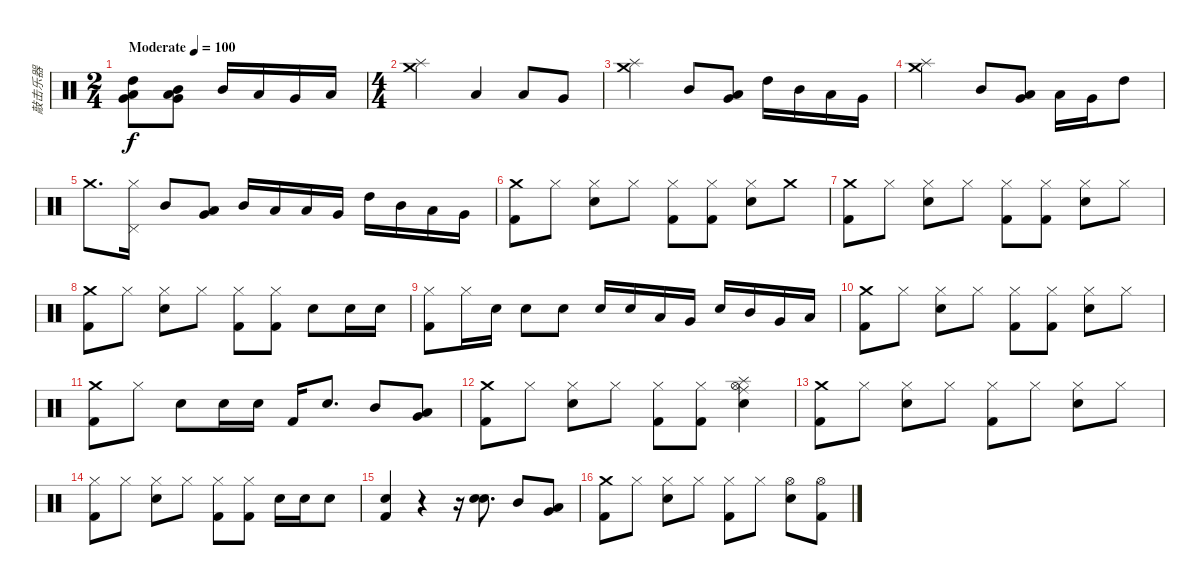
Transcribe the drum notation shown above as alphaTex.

\track ("敲击乐器" "敲击乐器") {instrument percussion}
\staff {score}
\articulation defaults
\ts (2 4)
\tempo (100 "Moderate")
\clef neutral
\ks c
("High Tom (hit)" "Low Tom (hit)" "Very Low Tom (hit)").8{dy f} ("Very Low Tom (hit)" "Mid Tom (hit)" "Low Tom (hit)").8 "Mid Tom (hit)".16 "Low Tom (hit)".16 "Very Low Tom (hit)".16 "Low Tom (hit)".16 |
\ts (4 4)
("Crash medium (hit)" "Splash (hit)").2 "Low Tom (hit)".4 "Low Tom (hit)".8 "Very Low Tom (hit)".8 |
("Crash medium (hit)" "Splash (hit)").2 "Mid Tom (hit)".8 ("Very Low Tom (hit)" "Low Tom (hit)").8 "High Tom (hit)".16 "Mid Tom (hit)".16 "Low Tom (hit)".16 "Very Low Tom (hit)".16 |
("Crash medium (hit)" "Splash (hit)").2 "Mid Tom (hit)".8 ("Very Low Tom (hit)" "Low Tom (hit)").8 "Low Tom (hit)".16 "Very Low Tom (hit)".16 "High Tom (hit)".8 |
"Crash medium (hit)".8{d} ("Pedal Hi-Hat (hit)" "Hi-Hat (closed)").16 "Mid Tom (hit)".8 ("Very Low Tom (hit)" "Low Tom (hit)").8 "Mid Tom (hit)".16 "Low Tom (hit)".16 "Low Tom (hit)".16 "Very Low Tom (hit)".16 "High Tom (hit)".16 "Mid Tom (hit)".16 "Low Tom (hit)".16 "Very Low Tom (hit)".16 |
("Crash medium (hit)" "Kick (hit) 2").8 "Hi-Hat (closed)".8 ("Hi-Hat (closed)" "Electric Snare (hit)").8 "Hi-Hat (closed)".8 ("Hi-Hat (closed)" "Kick (hit) 2").8 ("Hi-Hat (closed)" "Kick (hit) 2").8 ("Hi-Hat (closed)" "Electric Snare (hit)").8 "Crash medium (hit)".8 |
("Crash medium (hit)" "Kick (hit) 2").8 "Hi-Hat (closed)".8 ("Hi-Hat (closed)" "Electric Snare (hit)").8 "Hi-Hat (closed)".8 ("Hi-Hat (closed)" "Kick (hit) 2").8 ("Hi-Hat (closed)" "Kick (hit) 2").8 ("Hi-Hat (closed)" "Electric Snare (hit)").8 "Hi-Hat (closed)".8 |
("Crash medium (hit)" "Kick (hit) 2").8 "Hi-Hat (closed)".8 ("Hi-Hat (closed)" "Electric Snare (hit)").8 "Hi-Hat (closed)".8 ("Hi-Hat (closed)" "Kick (hit) 2").8 ("Hi-Hat (closed)" "Kick (hit) 2").8 "Electric Snare (hit)".8 "Electric Snare (hit)".16 "Electric Snare (hit)".16 |
("Hi-Hat (closed)" "Kick (hit) 2").8 "Hi-Hat (closed)".16 "Electric Snare (hit)".16 "Electric Snare (hit)".8 "Electric Snare (hit)".8 "Electric Snare (hit)".16 "Electric Snare (hit)".16 "Low Tom (hit)".16 "Very Low Tom (hit)".16 "Electric Snare (hit)".16 "Mid Tom (hit)".16 "Very Low Tom (hit)".16 "Low Tom (hit)".16 |
("Crash medium (hit)" "Kick (hit) 2").8 "Hi-Hat (closed)".8 ("Hi-Hat (closed)" "Electric Snare (hit)").8 "Hi-Hat (closed)".8 ("Hi-Hat (closed)" "Kick (hit) 2").8 ("Hi-Hat (closed)" "Kick (hit) 2").8 ("Hi-Hat (closed)" "Electric Snare (hit)").8 "Hi-Hat (closed)".8 |
("Crash medium (hit)" "Kick (hit) 2").8 "Hi-Hat (closed)".8 "Electric Snare (hit)".8 "Electric Snare (hit)".16 "Electric Snare (hit)".16 "Kick (hit) 2".16 "Electric Snare (hit)".8{d} "Mid Tom (hit)".8 ("Very Low Tom (hit)" "Low Tom (hit)").8 |
("Crash medium (hit)" "Kick (hit) 2").8 "Hi-Hat (closed)".8 ("Hi-Hat (closed)" "Electric Snare (hit)").8 "Hi-Hat (closed)".8 ("Hi-Hat (closed)" "Kick (hit) 2").8 ("Hi-Hat (closed)" "Kick (hit) 2").8 ("Hi-Hat (open)" "Electric Snare (hit)" "Splash (hit)" "Ride (middle)").4 |
("Crash medium (hit)" "Kick (hit) 2").8 "Hi-Hat (closed)".8 ("Hi-Hat (closed)" "Electric Snare (hit)").8 "Hi-Hat (closed)".8 ("Hi-Hat (closed)" "Kick (hit) 2").8 "Hi-Hat (closed)".8 ("Hi-Hat (closed)" "Electric Snare (hit)").8 "Hi-Hat (closed)".8 |
("Hi-Hat (closed)" "Kick (hit) 2").8 "Hi-Hat (closed)".8 ("Hi-Hat (closed)" "Electric Snare (hit)").8 "Hi-Hat (closed)".8 ("Hi-Hat (closed)" "Kick (hit) 2").8 ("Hi-Hat (closed)" "Kick (hit) 2").8 "Electric Snare (hit)".16 "Electric Snare (hit)".16 "Electric Snare (hit)".8 |
("Electric Snare (hit)" "Kick (hit) 2").4 r.4 r.16 ("Electric Snare (hit)" "Snare (hit) 2").8{d} "Mid Tom (hit)".8 ("Very Low Tom (hit)" "Low Tom (hit)").8 |
("Crash medium (hit)" "Kick (hit) 2").8 "Hi-Hat (closed)".8 ("Hi-Hat (closed)" "Electric Snare (hit)").8 "Hi-Hat (closed)".8 ("Hi-Hat (closed)" "Kick (hit) 2").8 "Hi-Hat (closed)".8 ("Hi-Hat (open)" "Electric Snare (hit)").8 ("Hi-Hat (open)" "Kick (hit) 2").8
